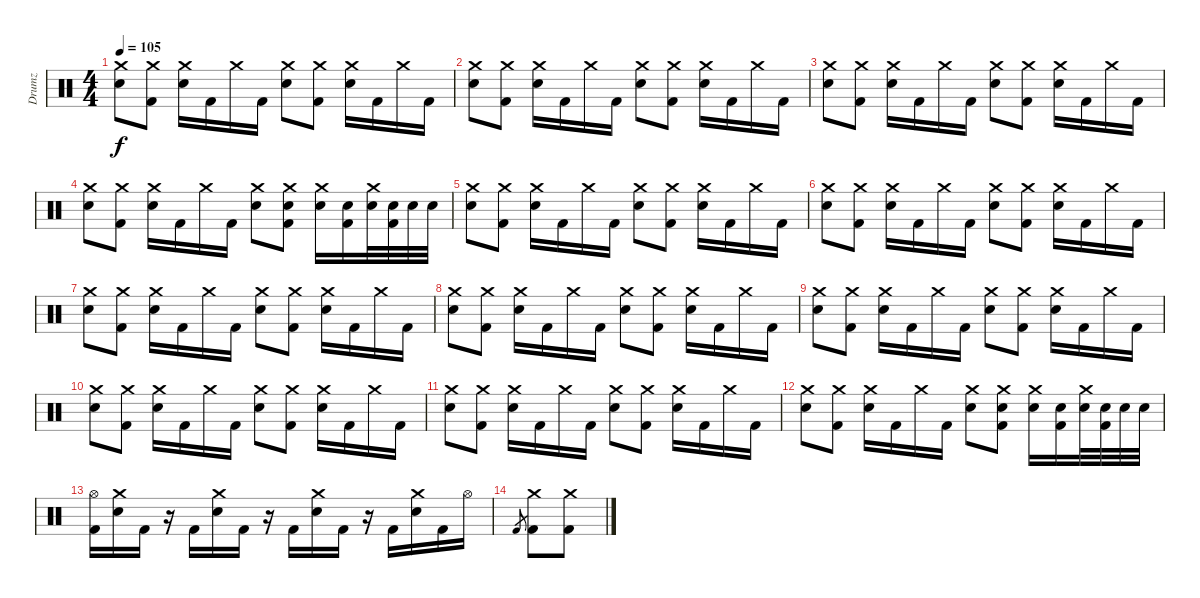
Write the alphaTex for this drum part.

\track ("Drumz" "Drumz") {instrument percussion}
\staff {score}
\articulation defaults
\ts (4 4)
\tempo 105
\clef neutral
\ks c
("Crash medium (hit)" "Electric Snare (hit)").8{dy f} ("Crash medium (hit)" "Kick (hit) 2").8 ("Crash medium (hit)" "Electric Snare (hit)").16 "Kick (hit) 2".16 "Crash medium (hit)".16 "Kick (hit) 2".16 ("Crash medium (hit)" "Electric Snare (hit)").8 ("Crash medium (hit)" "Kick (hit) 2").8 ("Crash medium (hit)" "Electric Snare (hit)").16 "Kick (hit) 2".16 "Crash medium (hit)".16 "Kick (hit) 2".16 |
("Crash medium (hit)" "Electric Snare (hit)").8 ("Crash medium (hit)" "Kick (hit) 2").8 ("Crash medium (hit)" "Electric Snare (hit)").16 "Kick (hit) 2".16 "Crash medium (hit)".16 "Kick (hit) 2".16 ("Crash medium (hit)" "Electric Snare (hit)").8 ("Crash medium (hit)" "Kick (hit) 2").8 ("Crash medium (hit)" "Electric Snare (hit)").16 "Kick (hit) 2".16 "Crash medium (hit)".16 "Kick (hit) 2".16 |
("Crash medium (hit)" "Electric Snare (hit)").8 ("Crash medium (hit)" "Kick (hit) 2").8 ("Crash medium (hit)" "Electric Snare (hit)").16 "Kick (hit) 2".16 "Crash medium (hit)".16 "Kick (hit) 2".16 ("Crash medium (hit)" "Electric Snare (hit)").8 ("Crash medium (hit)" "Kick (hit) 2").8 ("Crash medium (hit)" "Electric Snare (hit)").16 "Kick (hit) 2".16 "Crash medium (hit)".16 "Kick (hit) 2".16 |
("Crash medium (hit)" "Electric Snare (hit)").8 ("Crash medium (hit)" "Kick (hit) 2").8 ("Crash medium (hit)" "Electric Snare (hit)").16 "Kick (hit) 2".16 "Crash medium (hit)".16 "Kick (hit) 2".16 ("Crash medium (hit)" "Electric Snare (hit)").8 ("Crash medium (hit)" "Electric Snare (hit)" "Kick (hit) 2").8 ("Crash medium (hit)" "Electric Snare (hit)").16 ("Electric Snare (hit)" "Kick (hit) 2").16 ("Crash medium (hit)" "Electric Snare (hit)").32 ("Electric Snare (hit)" "Kick (hit) 2").32 "Electric Snare (hit)".32 "Electric Snare (hit)".32 |
("Crash medium (hit)" "Electric Snare (hit)").8 ("Crash medium (hit)" "Kick (hit) 2").8 ("Crash medium (hit)" "Electric Snare (hit)").16 "Kick (hit) 2".16 "Crash medium (hit)".16 "Kick (hit) 2".16 ("Crash medium (hit)" "Electric Snare (hit)").8 ("Crash medium (hit)" "Kick (hit) 2").8 ("Crash medium (hit)" "Electric Snare (hit)").16 "Kick (hit) 2".16 "Crash medium (hit)".16 "Kick (hit) 2".16 |
("Crash medium (hit)" "Electric Snare (hit)").8 ("Crash medium (hit)" "Kick (hit) 2").8 ("Crash medium (hit)" "Electric Snare (hit)").16 "Kick (hit) 2".16 "Crash medium (hit)".16 "Kick (hit) 2".16 ("Crash medium (hit)" "Electric Snare (hit)").8 ("Crash medium (hit)" "Kick (hit) 2").8 ("Crash medium (hit)" "Electric Snare (hit)").16 "Kick (hit) 2".16 "Crash medium (hit)".16 "Kick (hit) 2".16 |
("Crash medium (hit)" "Electric Snare (hit)").8 ("Crash medium (hit)" "Kick (hit) 2").8 ("Crash medium (hit)" "Electric Snare (hit)").16 "Kick (hit) 2".16 "Crash medium (hit)".16 "Kick (hit) 2".16 ("Crash medium (hit)" "Electric Snare (hit)").8 ("Crash medium (hit)" "Kick (hit) 2").8 ("Crash medium (hit)" "Electric Snare (hit)").16 "Kick (hit) 2".16 "Crash medium (hit)".16 "Kick (hit) 2".16 |
("Crash medium (hit)" "Electric Snare (hit)").8 ("Crash medium (hit)" "Kick (hit) 2").8 ("Crash medium (hit)" "Electric Snare (hit)").16 "Kick (hit) 2".16 "Crash medium (hit)".16 "Kick (hit) 2".16 ("Crash medium (hit)" "Electric Snare (hit)").8 ("Crash medium (hit)" "Kick (hit) 2").8 ("Crash medium (hit)" "Electric Snare (hit)").16 "Kick (hit) 2".16 "Crash medium (hit)".16 "Kick (hit) 2".16 |
("Crash medium (hit)" "Electric Snare (hit)").8 ("Crash medium (hit)" "Kick (hit) 2").8 ("Crash medium (hit)" "Electric Snare (hit)").16 "Kick (hit) 2".16 "Crash medium (hit)".16 "Kick (hit) 2".16 ("Crash medium (hit)" "Electric Snare (hit)").8 ("Crash medium (hit)" "Kick (hit) 2").8 ("Crash medium (hit)" "Electric Snare (hit)").16 "Kick (hit) 2".16 "Crash medium (hit)".16 "Kick (hit) 2".16 |
("Crash medium (hit)" "Electric Snare (hit)").8 ("Crash medium (hit)" "Kick (hit) 2").8 ("Crash medium (hit)" "Electric Snare (hit)").16 "Kick (hit) 2".16 "Crash medium (hit)".16 "Kick (hit) 2".16 ("Crash medium (hit)" "Electric Snare (hit)").8 ("Crash medium (hit)" "Kick (hit) 2").8 ("Crash medium (hit)" "Electric Snare (hit)").16 "Kick (hit) 2".16 "Crash medium (hit)".16 "Kick (hit) 2".16 |
("Crash medium (hit)" "Electric Snare (hit)").8 ("Crash medium (hit)" "Kick (hit) 2").8 ("Crash medium (hit)" "Electric Snare (hit)").16 "Kick (hit) 2".16 "Crash medium (hit)".16 "Kick (hit) 2".16 ("Crash medium (hit)" "Electric Snare (hit)").8 ("Crash medium (hit)" "Kick (hit) 2").8 ("Crash medium (hit)" "Electric Snare (hit)").16 "Kick (hit) 2".16 "Crash medium (hit)".16 "Kick (hit) 2".16 |
("Crash medium (hit)" "Electric Snare (hit)").8 ("Crash medium (hit)" "Kick (hit) 2").8 ("Crash medium (hit)" "Electric Snare (hit)").16 "Kick (hit) 2".16 "Crash medium (hit)".16 "Kick (hit) 2".16 ("Crash medium (hit)" "Electric Snare (hit)").8 ("Crash medium (hit)" "Electric Snare (hit)" "Kick (hit) 2").8 ("Crash medium (hit)" "Electric Snare (hit)").16 ("Electric Snare (hit)" "Kick (hit) 2").16 ("Crash medium (hit)" "Electric Snare (hit)").32 ("Electric Snare (hit)" "Kick (hit) 2").32 "Electric Snare (hit)".32 "Electric Snare (hit)".32 |
("Hi-Hat (open)" "Kick (hit) 2").16 ("Crash medium (hit)" "Electric Snare (hit)").16 "Kick (hit) 2".16 r.16 "Kick (hit) 2".16 ("Crash medium (hit)" "Electric Snare (hit)").16 "Kick (hit) 2".16 r.16 "Kick (hit) 2".16 ("Crash medium (hit)" "Electric Snare (hit)").16 "Kick (hit) 2".16 r.16 "Kick (hit) 2".16 ("Crash medium (hit)" "Electric Snare (hit)").16 "Kick (hit) 2".16 "Hi-Hat (open)".16 |
"Kick (hit) 2".8{gr} ("Crash medium (hit)" "Kick (hit) 2").8 ("Crash medium (hit)" "Kick (hit) 2").8
